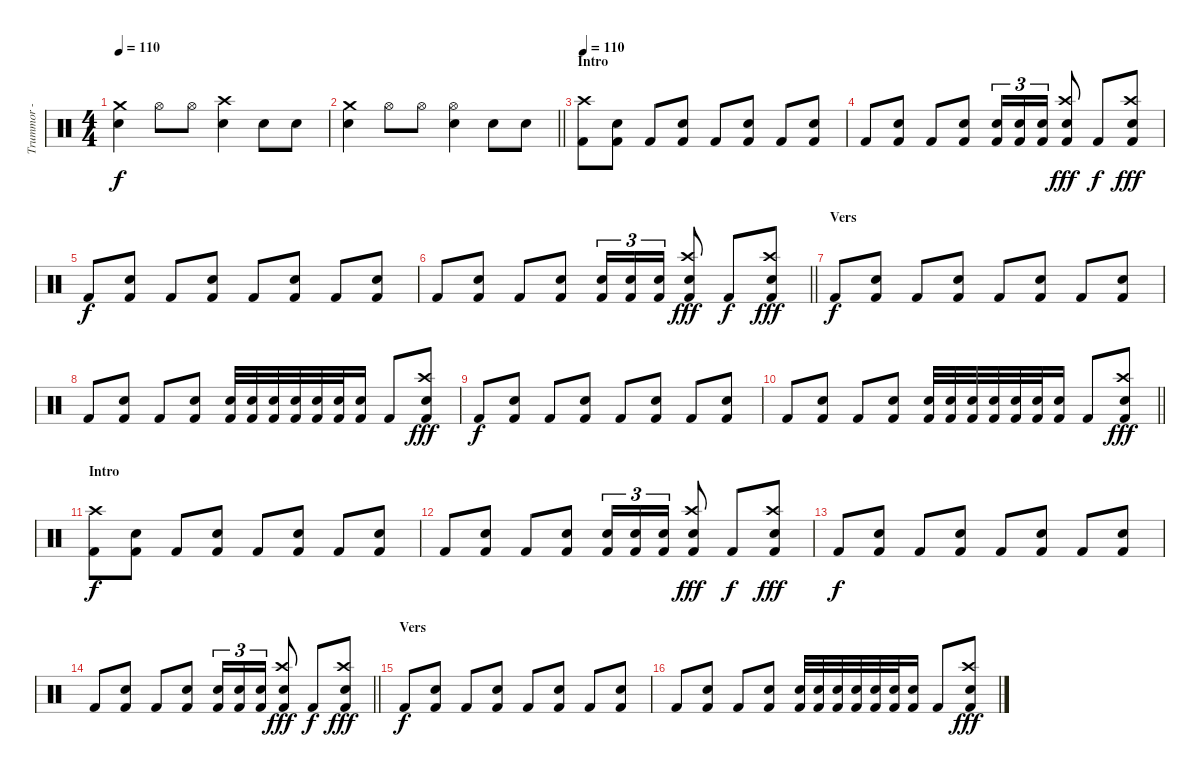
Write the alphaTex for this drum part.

\track ("Trummor - Larzon" "Trummor - ") {instrument percussion}
\staff {score}
\articulation defaults
\ts (4 4)
\tempo 110
\tempo 105
\tempo 110
\clef neutral
\ks c
("Snare (hit) 2" "Crash medium (hit)").4{dy f} "Hi-Hat (open)".8 "Hi-Hat (open)".8 ("Snare (hit) 2" "Crash high (hit)").4 "Snare (hit) 2".8 "Snare (hit) 2".8 |
\barLineRight lightlight
("Snare (hit) 2" "Crash medium (hit)").4 "Hi-Hat (open)".8 "Hi-Hat (open)".8 ("Snare (hit) 2" "Hi-Hat (open)").4 "Snare (hit) 2".8 "Snare (hit) 2".8 |
\section ("" "Intro")
\tempo 110
("Kick (hit) 2" "Crash high (hit)").8 ("Kick (hit) 2" "Snare (hit) 2").8 "Kick (hit) 2".8 ("Kick (hit) 2" "Snare (hit) 2").8 "Kick (hit) 2".8 ("Kick (hit) 2" "Snare (hit) 2").8 "Kick (hit) 2".8 ("Kick (hit) 2" "Snare (hit) 2").8 |
"Kick (hit) 2".8 ("Kick (hit) 2" "Snare (hit) 2").8 "Kick (hit) 2".8 ("Kick (hit) 2" "Snare (hit) 2").8 ("Kick (hit) 2" "Snare (hit) 2").16{tu (3 2)} ("Kick (hit) 2" "Snare (hit) 2").16{tu (3 2)} ("Kick (hit) 2" "Snare (hit) 2").16{tu (3 2)} ("Kick (hit) 2" "Crash high (hit)" "Snare (hit) 2").8{dy fff} "Kick (hit) 2".8{dy f} ("Kick (hit) 2" "Crash high (hit)" "Snare (hit) 2").8{dy fff} |
"Kick (hit) 2".8{dy f} ("Kick (hit) 2" "Snare (hit) 2").8 "Kick (hit) 2".8 ("Kick (hit) 2" "Snare (hit) 2").8 "Kick (hit) 2".8 ("Kick (hit) 2" "Snare (hit) 2").8 "Kick (hit) 2".8 ("Kick (hit) 2" "Snare (hit) 2").8 |
\barLineRight lightlight "Kick (hit) 2".8
("Kick (hit) 2" "Snare (hit) 2").8 "Kick (hit) 2".8 ("Kick (hit) 2" "Snare (hit) 2").8 ("Kick (hit) 2" "Snare (hit) 2").16{tu (3 2)} ("Kick (hit) 2" "Snare (hit) 2").16{tu (3 2)} ("Kick (hit) 2" "Snare (hit) 2").16{tu (3 2)} ("Kick (hit) 2" "Crash high (hit)" "Snare (hit) 2").8{dy fff} "Kick (hit) 2".8{dy f} ("Kick (hit) 2" "Crash high (hit)" "Snare (hit) 2").8{dy fff} |
\section ("" "Vers")
"Kick (hit) 2".8{dy f} ("Kick (hit) 2" "Snare (hit) 2").8 "Kick (hit) 2".8 ("Kick (hit) 2" "Snare (hit) 2").8 "Kick (hit) 2".8 ("Kick (hit) 2" "Snare (hit) 2").8 "Kick (hit) 2".8 ("Kick (hit) 2" "Snare (hit) 2").8 |
"Kick (hit) 2".8 ("Kick (hit) 2" "Snare (hit) 2").8 "Kick (hit) 2".8 ("Kick (hit) 2" "Snare (hit) 2").8 ("Kick (hit) 2" "Snare (hit) 2").32 ("Kick (hit) 2" "Snare (hit) 2").32 ("Kick (hit) 2" "Snare (hit) 2").32 ("Kick (hit) 2" "Snare (hit) 2").32 ("Kick (hit) 2" "Snare (hit) 2").32 ("Kick (hit) 2" "Snare (hit) 2").32 ("Kick (hit) 2" "Snare (hit) 2").16 "Kick (hit) 2".8 ("Kick (hit) 2" "Crash high (hit)" "Snare (hit) 2").8{dy fff} |
"Kick (hit) 2".8{dy f} ("Kick (hit) 2" "Snare (hit) 2").8 "Kick (hit) 2".8 ("Kick (hit) 2" "Snare (hit) 2").8 "Kick (hit) 2".8 ("Kick (hit) 2" "Snare (hit) 2").8 "Kick (hit) 2".8 ("Kick (hit) 2" "Snare (hit) 2").8 |
\barLineRight lightlight "Kick (hit) 2".8
("Kick (hit) 2" "Snare (hit) 2").8 "Kick (hit) 2".8 ("Kick (hit) 2" "Snare (hit) 2").8 ("Kick (hit) 2" "Snare (hit) 2").32 ("Kick (hit) 2" "Snare (hit) 2").32 ("Kick (hit) 2" "Snare (hit) 2").32 ("Kick (hit) 2" "Snare (hit) 2").32 ("Kick (hit) 2" "Snare (hit) 2").32 ("Kick (hit) 2" "Snare (hit) 2").32 ("Kick (hit) 2" "Snare (hit) 2").16 "Kick (hit) 2".8 ("Kick (hit) 2" "Crash high (hit)" "Snare (hit) 2").8{dy fff} |
\section ("" "Intro")
("Kick (hit) 2" "Crash high (hit)").8{dy f} ("Kick (hit) 2" "Snare (hit) 2").8 "Kick (hit) 2".8 ("Kick (hit) 2" "Snare (hit) 2").8 "Kick (hit) 2".8 ("Kick (hit) 2" "Snare (hit) 2").8 "Kick (hit) 2".8 ("Kick (hit) 2" "Snare (hit) 2").8 |
"Kick (hit) 2".8 ("Kick (hit) 2" "Snare (hit) 2").8 "Kick (hit) 2".8 ("Kick (hit) 2" "Snare (hit) 2").8 ("Kick (hit) 2" "Snare (hit) 2").16{tu (3 2)} ("Kick (hit) 2" "Snare (hit) 2").16{tu (3 2)} ("Kick (hit) 2" "Snare (hit) 2").16{tu (3 2)} ("Kick (hit) 2" "Crash high (hit)" "Snare (hit) 2").8{dy fff} "Kick (hit) 2".8{dy f} ("Kick (hit) 2" "Crash high (hit)" "Snare (hit) 2").8{dy fff} |
"Kick (hit) 2".8{dy f} ("Kick (hit) 2" "Snare (hit) 2").8 "Kick (hit) 2".8 ("Kick (hit) 2" "Snare (hit) 2").8 "Kick (hit) 2".8 ("Kick (hit) 2" "Snare (hit) 2").8 "Kick (hit) 2".8 ("Kick (hit) 2" "Snare (hit) 2").8 |
\barLineRight lightlight "Kick (hit) 2".8
("Kick (hit) 2" "Snare (hit) 2").8 "Kick (hit) 2".8 ("Kick (hit) 2" "Snare (hit) 2").8 ("Kick (hit) 2" "Snare (hit) 2").16{tu (3 2)} ("Kick (hit) 2" "Snare (hit) 2").16{tu (3 2)} ("Kick (hit) 2" "Snare (hit) 2").16{tu (3 2)} ("Kick (hit) 2" "Crash high (hit)" "Snare (hit) 2").8{dy fff} "Kick (hit) 2".8{dy f} ("Kick (hit) 2" "Crash high (hit)" "Snare (hit) 2").8{dy fff} |
\section ("" "Vers")
"Kick (hit) 2".8{dy f} ("Kick (hit) 2" "Snare (hit) 2").8 "Kick (hit) 2".8 ("Kick (hit) 2" "Snare (hit) 2").8 "Kick (hit) 2".8 ("Kick (hit) 2" "Snare (hit) 2").8 "Kick (hit) 2".8 ("Kick (hit) 2" "Snare (hit) 2").8 |
"Kick (hit) 2".8 ("Kick (hit) 2" "Snare (hit) 2").8 "Kick (hit) 2".8 ("Kick (hit) 2" "Snare (hit) 2").8 ("Kick (hit) 2" "Snare (hit) 2").32 ("Kick (hit) 2" "Snare (hit) 2").32 ("Kick (hit) 2" "Snare (hit) 2").32 ("Kick (hit) 2" "Snare (hit) 2").32 ("Kick (hit) 2" "Snare (hit) 2").32 ("Kick (hit) 2" "Snare (hit) 2").32 ("Kick (hit) 2" "Snare (hit) 2").16 "Kick (hit) 2".8 ("Kick (hit) 2" "Crash high (hit)" "Snare (hit) 2").8{dy fff}
